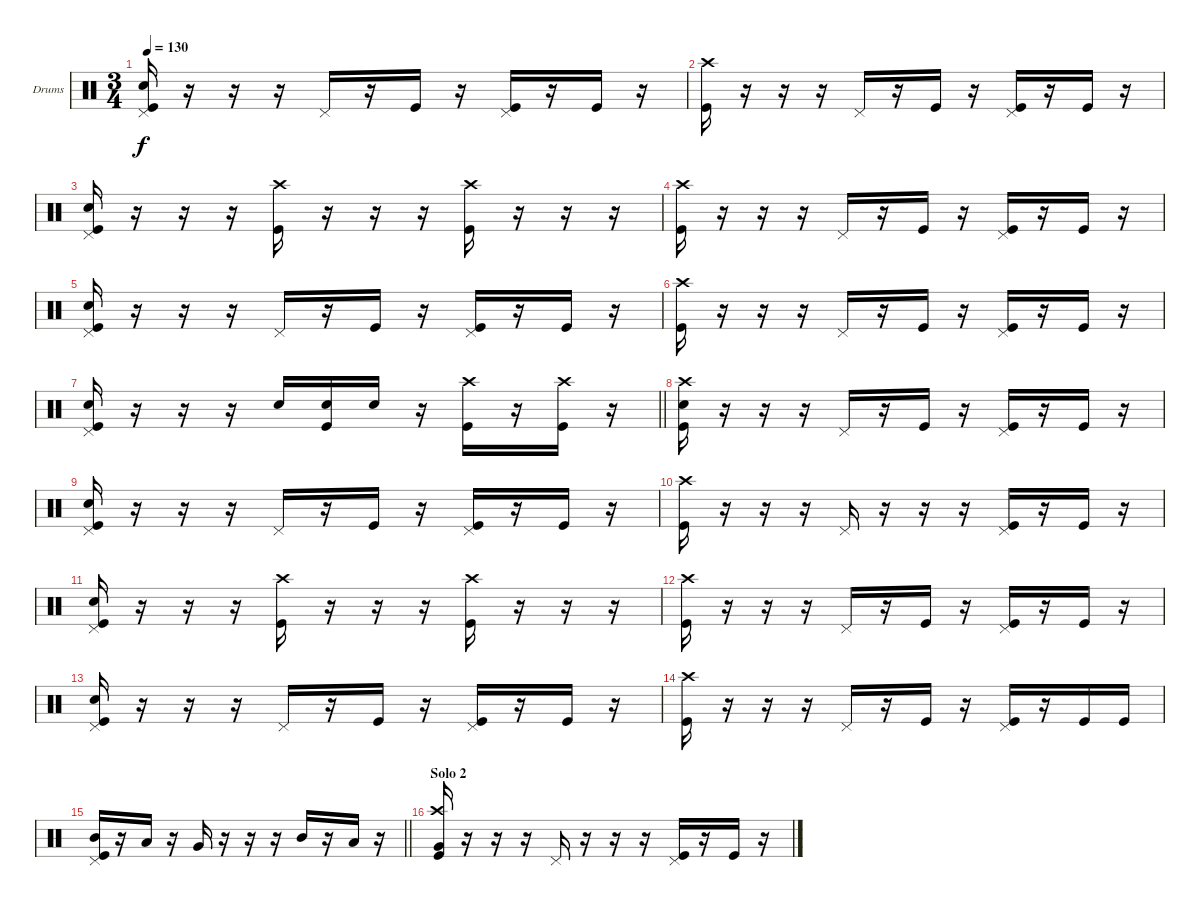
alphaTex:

\bracketExtendMode groupsimilarinstruments
\firstSystemTrackNameOrientation horizontal
\otherSystemsTrackNameOrientation horizontal
\track ("Drumkit" "Drums") {instrument percussion}
\staff {score}
\articulation defaults
\ts (3 4)
\tempo 130
\clef neutral
\ks c
("Kick (hit)" "Snare (hit) 2" "Pedal Hi-Hat (hit)").16{dy f} r.16 r.16 r.16 "Pedal Hi-Hat (hit)".16 r.16 "Kick (hit)".16 r.16 ("Kick (hit)" "Pedal Hi-Hat (hit)").16 r.16 "Kick (hit)".16 r.16 |
("Kick (hit)" "Crash high (hit)").16 r.16 r.16 r.16 "Pedal Hi-Hat (hit)".16 r.16 "Kick (hit)".16 r.16 ("Kick (hit)" "Pedal Hi-Hat (hit)").16 r.16 "Kick (hit)".16 r.16 |
("Kick (hit)" "Snare (hit) 2" "Pedal Hi-Hat (hit)").16 r.16 r.16 r.16 ("Kick (hit)" "Crash high (hit)").16 r.16 r.16 r.16 ("Kick (hit)" "Crash high (hit)").16 r.16 r.16 r.16 |
("Kick (hit)" "Crash high (hit)").16 r.16 r.16 r.16 "Pedal Hi-Hat (hit)".16 r.16 "Kick (hit)".16 r.16 ("Kick (hit)" "Pedal Hi-Hat (hit)").16 r.16 "Kick (hit)".16 r.16 |
("Kick (hit)" "Snare (hit) 2" "Pedal Hi-Hat (hit)").16 r.16 r.16 r.16 "Pedal Hi-Hat (hit)".16 r.16 "Kick (hit)".16 r.16 ("Kick (hit)" "Pedal Hi-Hat (hit)").16 r.16 "Kick (hit)".16 r.16 |
("Kick (hit)" "Crash high (hit)").16 r.16 r.16 r.16 "Pedal Hi-Hat (hit)".16 r.16 "Kick (hit)".16 r.16 ("Kick (hit)" "Pedal Hi-Hat (hit)").16 r.16 "Kick (hit)".16 r.16 |
\barLineRight lightlight
("Kick (hit)" "Snare (hit) 2" "Pedal Hi-Hat (hit)").16 r.16 r.16 r.16 "Snare (hit) 2".16 ("Kick (hit)" "Snare (hit) 2").16 "Snare (hit) 2".16 r.16 ("Kick (hit)" "Crash high (hit)").16 r.16 ("Kick (hit)" "Crash high (hit)").16 r.16 |
("Kick (hit)" "Snare (hit) 2" "Crash high (hit)").16 r.16 r.16 r.16 "Pedal Hi-Hat (hit)".16 r.16 "Kick (hit)".16 r.16 ("Kick (hit)" "Pedal Hi-Hat (hit)").16 r.16 "Kick (hit)".16 r.16 |
("Kick (hit)" "Snare (hit) 2" "Pedal Hi-Hat (hit)").16 r.16 r.16 r.16 "Pedal Hi-Hat (hit)".16 r.16 "Kick (hit)".16 r.16 ("Kick (hit)" "Pedal Hi-Hat (hit)").16 r.16 "Kick (hit)".16 r.16 |
("Kick (hit)" "Crash high (hit)").16 r.16 r.16 r.16 "Pedal Hi-Hat (hit)".16 r.16 r.16 r.16 ("Kick (hit)" "Pedal Hi-Hat (hit)").16 r.16 "Kick (hit)".16 r.16 |
("Kick (hit)" "Snare (hit) 2" "Pedal Hi-Hat (hit)").16 r.16 r.16 r.16 ("Kick (hit)" "Crash high (hit)").16 r.16 r.16 r.16 ("Kick (hit)" "Crash high (hit)").16 r.16 r.16 r.16 |
("Kick (hit)" "Crash high (hit)").16 r.16 r.16 r.16 "Pedal Hi-Hat (hit)".16 r.16 "Kick (hit)".16 r.16 ("Kick (hit)" "Pedal Hi-Hat (hit)").16 r.16 "Kick (hit)".16 r.16 |
("Kick (hit)" "Snare (hit) 2" "Pedal Hi-Hat (hit)").16 r.16 r.16 r.16 "Pedal Hi-Hat (hit)".16 r.16 "Kick (hit)".16 r.16 ("Kick (hit)" "Pedal Hi-Hat (hit)").16 r.16 "Kick (hit)".16 r.16 |
("Kick (hit)" "Crash high (hit)").16 r.16 r.16 r.16 "Pedal Hi-Hat (hit)".16 r.16 "Kick (hit)".16 r.16 ("Kick (hit)" "Pedal Hi-Hat (hit)").16 r.16 "Kick (hit)".16 "Kick (hit)".16 |
\barLineRight lightlight
("Kick (hit)" "Pedal Hi-Hat (hit)" "Mid Tom (hit)").16 r.16 "Low Tom (hit)".16 r.16 "Very Low Tom (hit)".16 r.16 r.16 r.16 "Mid Tom (hit)".16 r.16 "Low Tom (hit)".16 r.16 |
\section ("" "Solo 2")
("Kick (hit)" "Very Low Tom (hit)" "Crash high (hit)").16 r.16 r.16 r.16 "Pedal Hi-Hat (hit)".16 r.16 r.16 r.16 ("Kick (hit)" "Pedal Hi-Hat (hit)").16 r.16 "Kick (hit)".16 r.16
